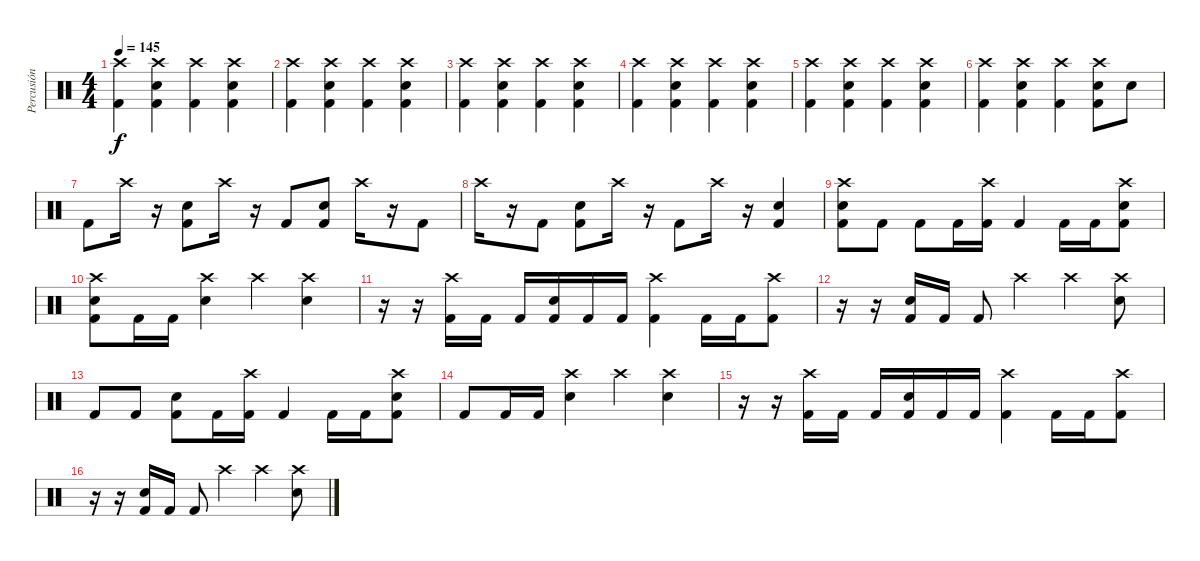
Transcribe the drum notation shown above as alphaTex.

\track ("Percusión" "Percusión") {instrument percussion}
\staff {score}
\articulation defaults
\ts (4 4)
\tempo 145
\clef neutral
\ks c
("Crash high (hit)" "Kick (hit) 2").4{dy f} ("Crash high (hit)" "Electric Snare (hit)" "Kick (hit) 2").4 ("Crash high (hit)" "Kick (hit) 2").4 ("Crash high (hit)" "Electric Snare (hit)" "Kick (hit) 2").4 |
("Crash high (hit)" "Kick (hit) 2").4 ("Crash high (hit)" "Electric Snare (hit)" "Kick (hit) 2").4 ("Crash high (hit)" "Kick (hit) 2").4 ("Crash high (hit)" "Electric Snare (hit)" "Kick (hit) 2").4 |
("Crash high (hit)" "Kick (hit) 2").4 ("Crash high (hit)" "Electric Snare (hit)" "Kick (hit) 2").4 ("Crash high (hit)" "Kick (hit) 2").4 ("Crash high (hit)" "Electric Snare (hit)" "Kick (hit) 2").4 |
("Crash high (hit)" "Kick (hit) 2").4 ("Crash high (hit)" "Electric Snare (hit)" "Kick (hit) 2").4 ("Crash high (hit)" "Kick (hit) 2").4 ("Crash high (hit)" "Electric Snare (hit)" "Kick (hit) 2").4 |
("Crash high (hit)" "Kick (hit) 2").4 ("Crash high (hit)" "Electric Snare (hit)" "Kick (hit) 2").4 ("Crash high (hit)" "Kick (hit) 2").4 ("Crash high (hit)" "Electric Snare (hit)" "Kick (hit) 2").4 |
("Crash high (hit)" "Kick (hit) 2").4 ("Crash high (hit)" "Electric Snare (hit)" "Kick (hit) 2").4 ("Crash high (hit)" "Kick (hit) 2").4 ("Crash high (hit)" "Electric Snare (hit)" "Kick (hit) 2").8 "Electric Snare (hit)".8 |
"Kick (hit) 2".8 "Crash high (hit)".16 r.16 ("Electric Snare (hit)" "Kick (hit) 2").8 "Crash high (hit)".16 r.16 "Kick (hit) 2".8 ("Electric Snare (hit)" "Kick (hit) 2").8 "Crash high (hit)".16 r.16 "Kick (hit) 2".8 |
"Crash high (hit)".16 r.16 "Kick (hit) 2".8 ("Electric Snare (hit)" "Kick (hit) 2").8 "Crash high (hit)".16 r.16 "Kick (hit) 2".8 "Crash high (hit)".16 r.16 ("Electric Snare (hit)" "Kick (hit) 2").4 |
("Crash high (hit)" "Electric Snare (hit)" "Kick (hit) 2").8 "Kick (hit) 2".8 "Kick (hit) 2".8 "Kick (hit) 2".16 ("Crash high (hit)" "Kick (hit) 2").16 "Kick (hit) 2".4 "Kick (hit) 2".16 "Kick (hit) 2".16 ("Crash high (hit)" "Electric Snare (hit)" "Kick (hit) 2").8 |
("Crash high (hit)" "Electric Snare (hit)" "Kick (hit) 2").8 "Kick (hit) 2".16 "Kick (hit) 2".16 ("Crash high (hit)" "Electric Snare (hit)").4 "Crash high (hit)".4 ("Crash high (hit)" "Electric Snare (hit)").4 |
r.16 r.16 ("Crash high (hit)" "Kick (hit) 2").16 "Kick (hit) 2".16 "Kick (hit) 2".16 ("Electric Snare (hit)" "Kick (hit) 2").16 "Kick (hit) 2".16 "Kick (hit) 2".16 ("Crash high (hit)" "Kick (hit) 2").4 "Kick (hit) 2".16 "Kick (hit) 2".16 ("Crash high (hit)" "Kick (hit) 2").8 |
r.16 r.16 ("Electric Snare (hit)" "Kick (hit) 2").16 "Kick (hit) 2".16 "Kick (hit) 2".8 "Crash high (hit)".4 "Crash high (hit)".4 ("Crash high (hit)" "Electric Snare (hit)").8 |
"Kick (hit) 2".8 "Kick (hit) 2".8 ("Electric Snare (hit)" "Kick (hit) 2").8 "Kick (hit) 2".16 ("Crash high (hit)" "Kick (hit) 2").16 "Kick (hit) 2".4 "Kick (hit) 2".16 "Kick (hit) 2".16 ("Crash high (hit)" "Electric Snare (hit)" "Kick (hit) 2").8 |
"Kick (hit) 2".8 "Kick (hit) 2".16 "Kick (hit) 2".16 ("Crash high (hit)" "Electric Snare (hit)").4 "Crash high (hit)".4 ("Crash high (hit)" "Electric Snare (hit)").4 |
r.16 r.16 ("Crash high (hit)" "Kick (hit) 2").16 "Kick (hit) 2".16 "Kick (hit) 2".16 ("Electric Snare (hit)" "Kick (hit) 2").16 "Kick (hit) 2".16 "Kick (hit) 2".16 ("Crash high (hit)" "Kick (hit) 2").4 "Kick (hit) 2".16 "Kick (hit) 2".16 ("Crash high (hit)" "Kick (hit) 2").8 |
r.16 r.16 ("Electric Snare (hit)" "Kick (hit) 2").16 "Kick (hit) 2".16 "Kick (hit) 2".8 "Crash high (hit)".4 "Crash high (hit)".4 ("Crash high (hit)" "Electric Snare (hit)").8
